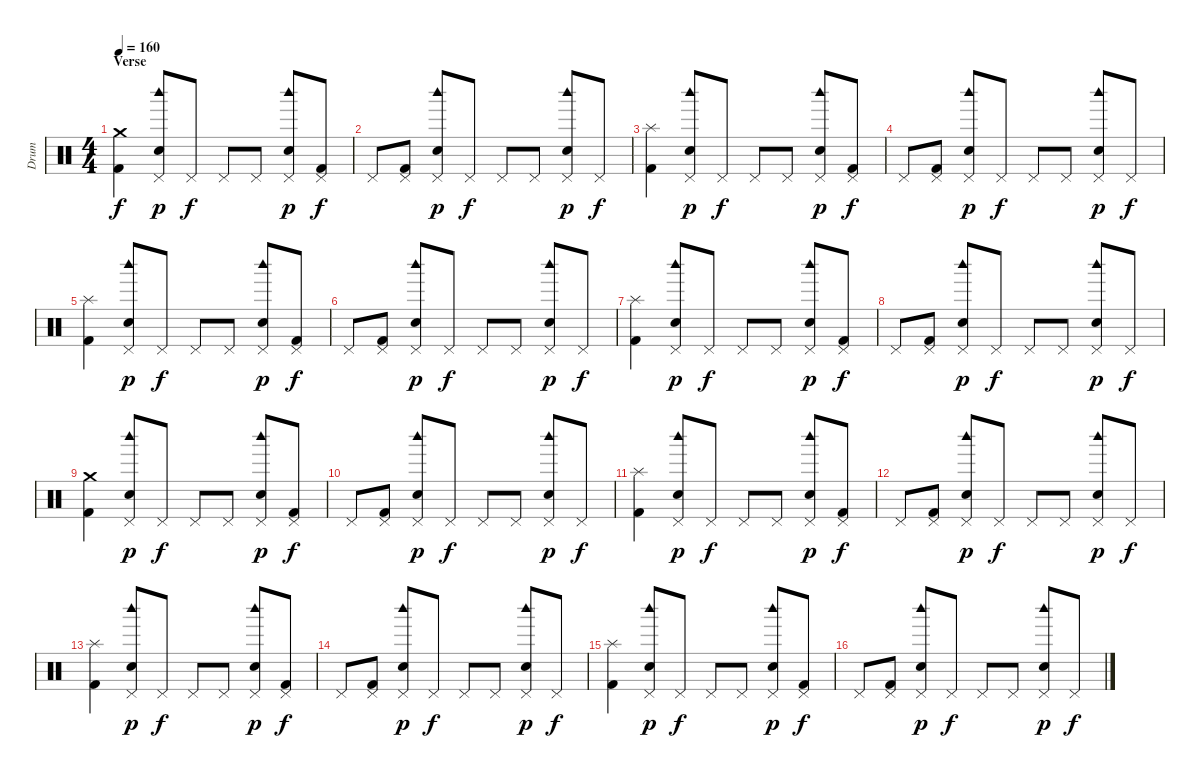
\track ("Drum" "Drum") {instrument percussion}
\staff {score}
\articulation defaults
\ts (4 4)
\section ("" "Verse")
\tempo 160
\clef neutral
\ks c
("Crash medium (hit)" "Kick (hit) 2").4{dy f} ("Pedal Hi-Hat (hit)" "Woodblock high (hit)" "Electric Snare (hit)").8{dy p} "Pedal Hi-Hat (hit)".8{dy f} "Pedal Hi-Hat (hit)".8 "Pedal Hi-Hat (hit)".8 ("Pedal Hi-Hat (hit)" "Woodblock high (hit)" "Electric Snare (hit)").8{dy p} ("Pedal Hi-Hat (hit)" "Kick (hit) 2").8{dy f} |
"Pedal Hi-Hat (hit)".8 ("Pedal Hi-Hat (hit)" "Kick (hit) 2").8 ("Pedal Hi-Hat (hit)" "Woodblock high (hit)" "Electric Snare (hit)").8{dy p} "Pedal Hi-Hat (hit)".8{dy f} "Pedal Hi-Hat (hit)".8 "Pedal Hi-Hat (hit)".8 ("Pedal Hi-Hat (hit)" "Woodblock high (hit)" "Electric Snare (hit)").8{dy p} "Pedal Hi-Hat (hit)".8{dy f} |
("Splash (hit)" "Kick (hit) 2").4 ("Pedal Hi-Hat (hit)" "Woodblock high (hit)" "Electric Snare (hit)").8{dy p} "Pedal Hi-Hat (hit)".8{dy f} "Pedal Hi-Hat (hit)".8 "Pedal Hi-Hat (hit)".8 ("Pedal Hi-Hat (hit)" "Woodblock high (hit)" "Electric Snare (hit)").8{dy p} ("Pedal Hi-Hat (hit)" "Kick (hit) 2").8{dy f} |
"Pedal Hi-Hat (hit)".8 ("Pedal Hi-Hat (hit)" "Kick (hit) 2").8 ("Pedal Hi-Hat (hit)" "Woodblock high (hit)" "Electric Snare (hit)").8{dy p} "Pedal Hi-Hat (hit)".8{dy f} "Pedal Hi-Hat (hit)".8 "Pedal Hi-Hat (hit)".8 ("Pedal Hi-Hat (hit)" "Woodblock high (hit)" "Electric Snare (hit)").8{dy p} "Pedal Hi-Hat (hit)".8{dy f} |
("Splash (hit)" "Kick (hit) 2").4 ("Pedal Hi-Hat (hit)" "Woodblock high (hit)" "Electric Snare (hit)").8{dy p} "Pedal Hi-Hat (hit)".8{dy f} "Pedal Hi-Hat (hit)".8 "Pedal Hi-Hat (hit)".8 ("Pedal Hi-Hat (hit)" "Woodblock high (hit)" "Electric Snare (hit)").8{dy p} ("Pedal Hi-Hat (hit)" "Kick (hit) 2").8{dy f} |
"Pedal Hi-Hat (hit)".8 ("Pedal Hi-Hat (hit)" "Kick (hit) 2").8 ("Pedal Hi-Hat (hit)" "Woodblock high (hit)" "Electric Snare (hit)").8{dy p} "Pedal Hi-Hat (hit)".8{dy f} "Pedal Hi-Hat (hit)".8 "Pedal Hi-Hat (hit)".8 ("Pedal Hi-Hat (hit)" "Woodblock high (hit)" "Electric Snare (hit)").8{dy p} "Pedal Hi-Hat (hit)".8{dy f} |
("Splash (hit)" "Kick (hit) 2").4 ("Pedal Hi-Hat (hit)" "Woodblock high (hit)" "Electric Snare (hit)").8{dy p} "Pedal Hi-Hat (hit)".8{dy f} "Pedal Hi-Hat (hit)".8 "Pedal Hi-Hat (hit)".8 ("Pedal Hi-Hat (hit)" "Woodblock high (hit)" "Electric Snare (hit)").8{dy p} ("Pedal Hi-Hat (hit)" "Kick (hit) 2").8{dy f} |
"Pedal Hi-Hat (hit)".8 ("Pedal Hi-Hat (hit)" "Kick (hit) 2").8 ("Pedal Hi-Hat (hit)" "Woodblock high (hit)" "Electric Snare (hit)").8{dy p} "Pedal Hi-Hat (hit)".8{dy f} "Pedal Hi-Hat (hit)".8 "Pedal Hi-Hat (hit)".8 ("Pedal Hi-Hat (hit)" "Woodblock high (hit)" "Electric Snare (hit)").8{dy p} "Pedal Hi-Hat (hit)".8{dy f} |
("Crash medium (hit)" "Kick (hit) 2").4 ("Pedal Hi-Hat (hit)" "Woodblock high (hit)" "Electric Snare (hit)").8{dy p} "Pedal Hi-Hat (hit)".8{dy f} "Pedal Hi-Hat (hit)".8 "Pedal Hi-Hat (hit)".8 ("Pedal Hi-Hat (hit)" "Woodblock high (hit)" "Electric Snare (hit)").8{dy p} ("Pedal Hi-Hat (hit)" "Kick (hit) 2").8{dy f} |
"Pedal Hi-Hat (hit)".8 ("Pedal Hi-Hat (hit)" "Kick (hit) 2").8 ("Pedal Hi-Hat (hit)" "Woodblock high (hit)" "Electric Snare (hit)").8{dy p} "Pedal Hi-Hat (hit)".8{dy f} "Pedal Hi-Hat (hit)".8 "Pedal Hi-Hat (hit)".8 ("Pedal Hi-Hat (hit)" "Woodblock high (hit)" "Electric Snare (hit)").8{dy p} "Pedal Hi-Hat (hit)".8{dy f} |
("Splash (hit)" "Kick (hit) 2").4 ("Pedal Hi-Hat (hit)" "Woodblock high (hit)" "Electric Snare (hit)").8{dy p} "Pedal Hi-Hat (hit)".8{dy f} "Pedal Hi-Hat (hit)".8 "Pedal Hi-Hat (hit)".8 ("Pedal Hi-Hat (hit)" "Woodblock high (hit)" "Electric Snare (hit)").8{dy p} ("Pedal Hi-Hat (hit)" "Kick (hit) 2").8{dy f} |
"Pedal Hi-Hat (hit)".8 ("Pedal Hi-Hat (hit)" "Kick (hit) 2").8 ("Pedal Hi-Hat (hit)" "Woodblock high (hit)" "Electric Snare (hit)").8{dy p} "Pedal Hi-Hat (hit)".8{dy f} "Pedal Hi-Hat (hit)".8 "Pedal Hi-Hat (hit)".8 ("Pedal Hi-Hat (hit)" "Woodblock high (hit)" "Electric Snare (hit)").8{dy p} "Pedal Hi-Hat (hit)".8{dy f} |
("Splash (hit)" "Kick (hit) 2").4 ("Pedal Hi-Hat (hit)" "Woodblock high (hit)" "Electric Snare (hit)").8{dy p} "Pedal Hi-Hat (hit)".8{dy f} "Pedal Hi-Hat (hit)".8 "Pedal Hi-Hat (hit)".8 ("Pedal Hi-Hat (hit)" "Woodblock high (hit)" "Electric Snare (hit)").8{dy p} ("Pedal Hi-Hat (hit)" "Kick (hit) 2").8{dy f} |
"Pedal Hi-Hat (hit)".8 ("Pedal Hi-Hat (hit)" "Kick (hit) 2").8 ("Pedal Hi-Hat (hit)" "Woodblock high (hit)" "Electric Snare (hit)").8{dy p} "Pedal Hi-Hat (hit)".8{dy f} "Pedal Hi-Hat (hit)".8 "Pedal Hi-Hat (hit)".8 ("Pedal Hi-Hat (hit)" "Woodblock high (hit)" "Electric Snare (hit)").8{dy p} "Pedal Hi-Hat (hit)".8{dy f} |
("Splash (hit)" "Kick (hit) 2").4 ("Pedal Hi-Hat (hit)" "Woodblock high (hit)" "Electric Snare (hit)").8{dy p} "Pedal Hi-Hat (hit)".8{dy f} "Pedal Hi-Hat (hit)".8 "Pedal Hi-Hat (hit)".8 ("Pedal Hi-Hat (hit)" "Woodblock high (hit)" "Electric Snare (hit)").8{dy p} ("Pedal Hi-Hat (hit)" "Kick (hit) 2").8{dy f} |
"Pedal Hi-Hat (hit)".8 ("Pedal Hi-Hat (hit)" "Kick (hit) 2").8 ("Pedal Hi-Hat (hit)" "Woodblock high (hit)" "Electric Snare (hit)").8{dy p} "Pedal Hi-Hat (hit)".8{dy f} "Pedal Hi-Hat (hit)".8 "Pedal Hi-Hat (hit)".8 ("Pedal Hi-Hat (hit)" "Woodblock high (hit)" "Electric Snare (hit)").8{dy p} "Pedal Hi-Hat (hit)".8{dy f}
